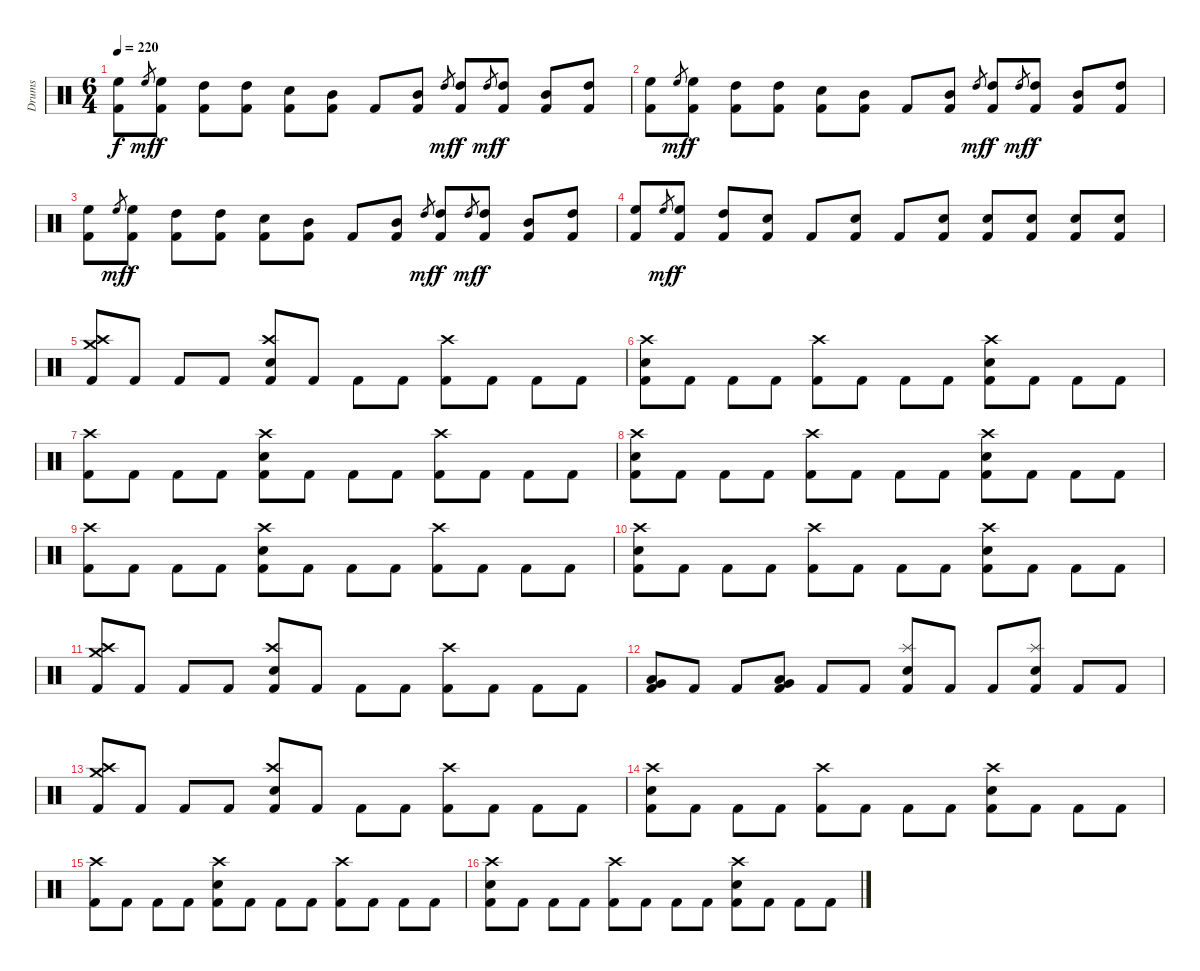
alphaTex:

\bracketExtendMode groupsimilarinstruments
\otherSystemsTrackNameOrientation horizontal
\track ("Drumkit" "Drums") {instrument percussion}
\staff {score}
\articulation defaults
\ts (6 4)
\tempo 220
\clef neutral
\ks c
("High Floor Tom (hit)" "Kick (hit) 2").8{dy f beam Down} "High Floor Tom (hit)".8{gr dy mf beam Up} ("High Floor Tom (hit)" "Kick (hit) 2").8{dy f beam Down} ("High Tom (hit)" "Kick (hit) 2").8{beam Down} ("High Tom (hit)" "Kick (hit) 2").8{beam Down} ("Snare (hit) 2" "Kick (hit) 2").8{beam Down} ("Mid Tom (hit)" "Kick (hit) 2").8{beam Down} "Kick (hit) 2".8{beam Up} ("Mid Tom (hit)" "Kick (hit) 2").8{beam Up} "High Tom (hit)".8{gr dy mf beam Up} ("High Tom (hit)" "Kick (hit) 2").8{dy f beam Up} "High Tom (hit)".8{gr dy mf beam Up} ("High Tom (hit)" "Kick (hit) 2").8{dy f beam Up} ("Mid Tom (hit)" "Kick (hit) 2").8{beam Up} ("High Tom (hit)" "Kick (hit) 2").8{beam Up} |
("High Floor Tom (hit)" "Kick (hit) 2").8{beam Down} "High Floor Tom (hit)".8{gr dy mf beam Up} ("High Floor Tom (hit)" "Kick (hit) 2").8{dy f beam Down} ("High Tom (hit)" "Kick (hit) 2").8{beam Down} ("High Tom (hit)" "Kick (hit) 2").8{beam Down} ("Snare (hit) 2" "Kick (hit) 2").8{beam Down} ("Mid Tom (hit)" "Kick (hit) 2").8{beam Down} "Kick (hit) 2".8{beam Up} ("Mid Tom (hit)" "Kick (hit) 2").8{beam Up} "High Tom (hit)".8{gr dy mf beam Up} ("High Tom (hit)" "Kick (hit) 2").8{dy f beam Up} "High Tom (hit)".8{gr dy mf beam Up} ("High Tom (hit)" "Kick (hit) 2").8{dy f beam Up} ("Mid Tom (hit)" "Kick (hit) 2").8{beam Up} ("High Tom (hit)" "Kick (hit) 2").8{beam Up} |
("High Floor Tom (hit)" "Kick (hit) 2").8{beam Down} "High Floor Tom (hit)".8{gr dy mf beam Up} ("High Floor Tom (hit)" "Kick (hit) 2").8{dy f beam Down} ("High Tom (hit)" "Kick (hit) 2").8{beam Down} ("High Tom (hit)" "Kick (hit) 2").8{beam Down} ("Snare (hit) 2" "Kick (hit) 2").8{beam Down} ("Mid Tom (hit)" "Kick (hit) 2").8{beam Down} "Kick (hit) 2".8{beam Up} ("Mid Tom (hit)" "Kick (hit) 2").8{beam Up} "High Tom (hit)".8{gr dy mf beam Up} ("High Tom (hit)" "Kick (hit) 2").8{dy f beam Up} "High Tom (hit)".8{gr dy mf beam Up} ("High Tom (hit)" "Kick (hit) 2").8{dy f beam Up} ("Mid Tom (hit)" "Kick (hit) 2").8{beam Up} ("High Tom (hit)" "Kick (hit) 2").8{beam Up} |
("High Floor Tom (hit)" "Kick (hit) 2").8{beam Up} "High Floor Tom (hit)".8{gr dy mf beam Up} ("High Floor Tom (hit)" "Kick (hit) 2").8{dy f beam Up} ("High Tom (hit)" "Kick (hit) 2").8{beam Up} ("Snare (hit) 2" "Kick (hit) 2").8{beam Up} "Kick (hit) 2".8{beam Up} ("Snare (hit) 2" "Kick (hit) 2").8{beam Up} "Kick (hit) 2".8{beam Up} ("Snare (hit) 2" "Kick (hit) 2").8{beam Up} ("Snare (hit) 2" "Kick (hit) 2").8{beam Up} ("Snare (hit) 2" "Kick (hit) 2").8{beam Up} ("Snare (hit) 2" "Kick (hit) 2").8{beam Up} ("Snare (hit) 2" "Kick (hit) 2").8{beam Up} |
("Crash medium (hit)" "Crash high (hit)" "Kick (hit) 2").8{beam Up} "Kick (hit) 2".8{beam Up} "Kick (hit) 2".8{beam Up} "Kick (hit) 2".8{beam Up} ("Crash high (hit)" "Snare (hit) 2" "Kick (hit) 2").8{beam Up} "Kick (hit) 2".8{beam Up} "Kick (hit) 2".8{beam Down} "Kick (hit) 2".8{beam Down} ("Crash high (hit)" "Kick (hit) 2").8{beam Down} "Kick (hit) 2".8{beam Down} "Kick (hit) 2".8{beam Down} "Kick (hit) 2".8{beam Down} |
("Crash high (hit)" "Snare (hit) 2" "Kick (hit) 2").8{beam Down} "Kick (hit) 2".8{beam Down} "Kick (hit) 2".8{beam Down} "Kick (hit) 2".8{beam Down} ("Crash high (hit)" "Kick (hit) 2").8{beam Down} "Kick (hit) 2".8{beam Down} "Kick (hit) 2".8{beam Down} "Kick (hit) 2".8{beam Down} ("Crash high (hit)" "Snare (hit) 2" "Kick (hit) 2").8{beam Down} "Kick (hit) 2".8{beam Down} "Kick (hit) 2".8{beam Down} "Kick (hit) 2".8{beam Down} |
("Crash high (hit)" "Kick (hit) 2").8{beam Down} "Kick (hit) 2".8{beam Down} "Kick (hit) 2".8{beam Down} "Kick (hit) 2".8{beam Down} ("Crash high (hit)" "Snare (hit) 2" "Kick (hit) 2").8{beam Down} "Kick (hit) 2".8{beam Down} "Kick (hit) 2".8{beam Down} "Kick (hit) 2".8{beam Down} ("Crash high (hit)" "Kick (hit) 2").8{beam Down} "Kick (hit) 2".8{beam Down} "Kick (hit) 2".8{beam Down} "Kick (hit) 2".8{beam Down} |
("Crash high (hit)" "Snare (hit) 2" "Kick (hit) 2").8{beam Down} "Kick (hit) 2".8{beam Down} "Kick (hit) 2".8{beam Down} "Kick (hit) 2".8{beam Down} ("Crash high (hit)" "Kick (hit) 2").8{beam Down} "Kick (hit) 2".8{beam Down} "Kick (hit) 2".8{beam Down} "Kick (hit) 2".8{beam Down} ("Crash high (hit)" "Snare (hit) 2" "Kick (hit) 2").8{beam Down} "Kick (hit) 2".8{beam Down} "Kick (hit) 2".8{beam Down} "Kick (hit) 2".8{beam Down} |
("Crash high (hit)" "Kick (hit) 2").8{beam Down} "Kick (hit) 2".8{beam Down} "Kick (hit) 2".8{beam Down} "Kick (hit) 2".8{beam Down} ("Crash high (hit)" "Snare (hit) 2" "Kick (hit) 2").8{beam Down} "Kick (hit) 2".8{beam Down} "Kick (hit) 2".8{beam Down} "Kick (hit) 2".8{beam Down} ("Crash high (hit)" "Kick (hit) 2").8{beam Down} "Kick (hit) 2".8{beam Down} "Kick (hit) 2".8{beam Down} "Kick (hit) 2".8{beam Down} |
("Crash high (hit)" "Snare (hit) 2" "Kick (hit) 2").8{beam Down} "Kick (hit) 2".8{beam Down} "Kick (hit) 2".8{beam Down} "Kick (hit) 2".8{beam Down} ("Crash high (hit)" "Kick (hit) 2").8{beam Down} "Kick (hit) 2".8{beam Down} "Kick (hit) 2".8{beam Down} "Kick (hit) 2".8{beam Down} ("Crash high (hit)" "Snare (hit) 2" "Kick (hit) 2").8{beam Down} "Kick (hit) 2".8{beam Down} "Kick (hit) 2".8{beam Down} "Kick (hit) 2".8{beam Down} |
("Crash medium (hit)" "Crash high (hit)" "Kick (hit) 2").8{beam Up} "Kick (hit) 2".8{beam Up} "Kick (hit) 2".8{beam Up} "Kick (hit) 2".8{beam Up} ("Crash high (hit)" "Snare (hit) 2" "Kick (hit) 2").8{beam Up} "Kick (hit) 2".8{beam Up} "Kick (hit) 2".8{beam Down} "Kick (hit) 2".8{beam Down} ("Crash high (hit)" "Kick (hit) 2").8{beam Down} "Kick (hit) 2".8{beam Down} "Kick (hit) 2".8{beam Down} "Kick (hit) 2".8{beam Down} |
("Very Low Tom (hit)" "Low Tom (hit)" "Kick (hit) 2").8{beam Up} "Kick (hit) 2".8{beam Up} "Kick (hit) 2".8{beam Up} ("Very Low Tom (hit)" "Low Tom (hit)" "Kick (hit) 2").8{beam Up} "Kick (hit) 2".8{beam Up} "Kick (hit) 2".8{beam Up} ("Splash (hit)" "Snare (hit) 2" "Kick (hit) 2").8{beam Up} "Kick (hit) 2".8{beam Up} "Kick (hit) 2".8{beam Up} ("Splash (hit)" "Snare (hit) 2" "Kick (hit) 2").8{beam Up} "Kick (hit) 2".8{beam Up} "Kick (hit) 2".8{beam Up} |
("Crash medium (hit)" "Crash high (hit)" "Kick (hit) 2").8{beam Up} "Kick (hit) 2".8{beam Up} "Kick (hit) 2".8{beam Up} "Kick (hit) 2".8{beam Up} ("Crash high (hit)" "Snare (hit) 2" "Kick (hit) 2").8{beam Up} "Kick (hit) 2".8{beam Up} "Kick (hit) 2".8{beam Down} "Kick (hit) 2".8{beam Down} ("Crash high (hit)" "Kick (hit) 2").8{beam Down} "Kick (hit) 2".8{beam Down} "Kick (hit) 2".8{beam Down} "Kick (hit) 2".8{beam Down} |
("Crash high (hit)" "Snare (hit) 2" "Kick (hit) 2").8{beam Down} "Kick (hit) 2".8{beam Down} "Kick (hit) 2".8{beam Down} "Kick (hit) 2".8{beam Down} ("Crash high (hit)" "Kick (hit) 2").8{beam Down} "Kick (hit) 2".8{beam Down} "Kick (hit) 2".8{beam Down} "Kick (hit) 2".8{beam Down} ("Crash high (hit)" "Snare (hit) 2" "Kick (hit) 2").8{beam Down} "Kick (hit) 2".8{beam Down} "Kick (hit) 2".8{beam Down} "Kick (hit) 2".8{beam Down} |
("Crash high (hit)" "Kick (hit) 2").8{beam Down} "Kick (hit) 2".8{beam Down} "Kick (hit) 2".8{beam Down} "Kick (hit) 2".8{beam Down} ("Crash high (hit)" "Snare (hit) 2" "Kick (hit) 2").8{beam Down} "Kick (hit) 2".8{beam Down} "Kick (hit) 2".8{beam Down} "Kick (hit) 2".8{beam Down} ("Crash high (hit)" "Kick (hit) 2").8{beam Down} "Kick (hit) 2".8{beam Down} "Kick (hit) 2".8{beam Down} "Kick (hit) 2".8{beam Down} |
("Crash high (hit)" "Snare (hit) 2" "Kick (hit) 2").8{beam Down} "Kick (hit) 2".8{beam Down} "Kick (hit) 2".8{beam Down} "Kick (hit) 2".8{beam Down} ("Crash high (hit)" "Kick (hit) 2").8{beam Down} "Kick (hit) 2".8{beam Down} "Kick (hit) 2".8{beam Down} "Kick (hit) 2".8{beam Down} ("Crash high (hit)" "Snare (hit) 2" "Kick (hit) 2").8{beam Down} "Kick (hit) 2".8{beam Down} "Kick (hit) 2".8{beam Down} "Kick (hit) 2".8{beam Down}
